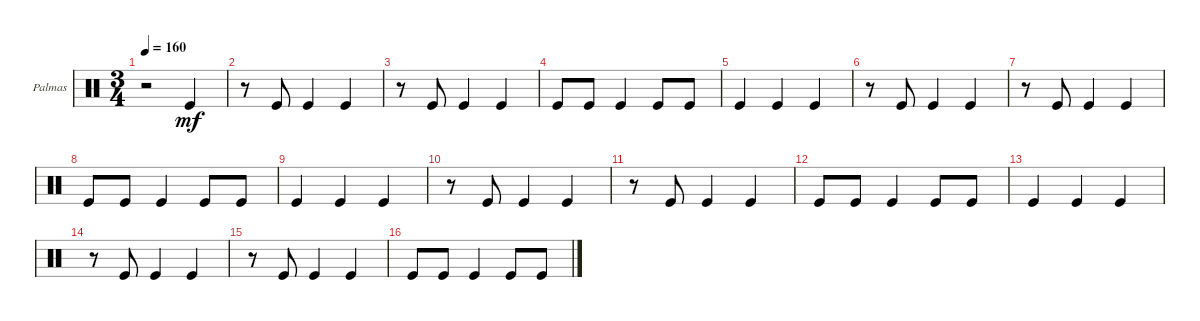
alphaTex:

\defaultSystemsLayout 4
\bracketExtendMode groupsimilarinstruments
\firstSystemTrackNameOrientation horizontal
\otherSystemsTrackNameOrientation horizontal
\track ("Palmas" "Palmas") {instrument percussion}
\staff {score}
\articulation defaults
\ts (3 4)
\tempo 160
\clef neutral
\ks c
r.2{dy mf} "Kick (hit)".4 |
r.8 "Kick (hit)".8 "Kick (hit)".4 "Kick (hit)".4 |
r.8 "Kick (hit)".8 "Kick (hit)".4 "Kick (hit)".4 |
"Kick (hit)".8 "Kick (hit)".8 "Kick (hit)".4 "Kick (hit)".8 "Kick (hit)".8 |
"Kick (hit)".4 "Kick (hit)".4 "Kick (hit)".4 |
r.8 "Kick (hit)".8 "Kick (hit)".4 "Kick (hit)".4 |
r.8 "Kick (hit)".8 "Kick (hit)".4 "Kick (hit)".4 |
"Kick (hit)".8 "Kick (hit)".8 "Kick (hit)".4 "Kick (hit)".8 "Kick (hit)".8 |
"Kick (hit)".4 "Kick (hit)".4 "Kick (hit)".4 |
r.8 "Kick (hit)".8 "Kick (hit)".4 "Kick (hit)".4 |
r.8 "Kick (hit)".8 "Kick (hit)".4 "Kick (hit)".4 |
"Kick (hit)".8 "Kick (hit)".8 "Kick (hit)".4 "Kick (hit)".8 "Kick (hit)".8 |
"Kick (hit)".4 "Kick (hit)".4 "Kick (hit)".4 |
r.8 "Kick (hit)".8 "Kick (hit)".4 "Kick (hit)".4 |
r.8 "Kick (hit)".8 "Kick (hit)".4 "Kick (hit)".4 |
"Kick (hit)".8 "Kick (hit)".8 "Kick (hit)".4 "Kick (hit)".8 "Kick (hit)".8
